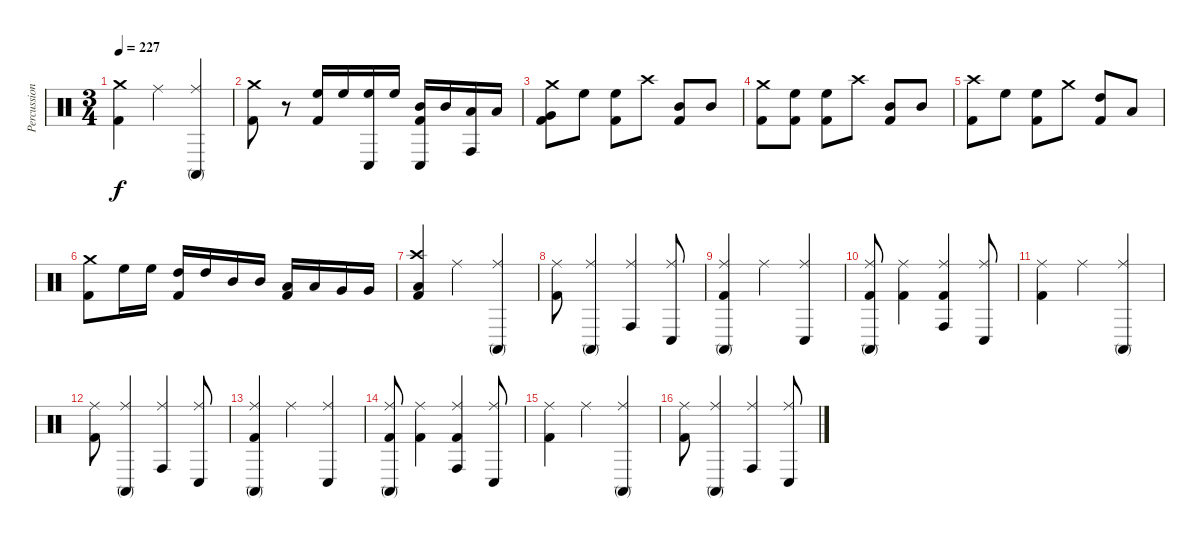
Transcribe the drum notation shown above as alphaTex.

\track ("Percussion" "Percussion") {instrument percussion}
\staff {score}
\articulation defaults
\ts (3 4)
\tempo 227
\clef neutral
\ks c
("Crash medium (hit)" "Kick (hit) 2").4{dy f} "Ride (middle)".4 ("Ride (middle)" "Conga high (mute)").4 |
("Crash medium (hit)" "Kick (hit) 2").8 r.8 ("High Floor Tom (hit)" "Kick (hit) 2").16 "High Floor Tom (hit)".16 ("Conga low (hit)" "High Floor Tom (hit)").16 "High Floor Tom (hit)".16 ("Conga low (hit)" "Mid Tom (hit)" "Kick (hit) 2").16 "Mid Tom (hit)".16 ("Conga high (hit)" "Low Tom (hit)").16 "Low Tom (hit)".16 |
("Crash medium (hit)" "Very Low Tom (hit)" "Kick (hit) 2").8 "High Floor Tom (hit)".8 ("High Floor Tom (hit)" "Kick (hit) 2").8 "Crash high (hit)".8 ("Mid Tom (hit)" "Kick (hit) 2").8 "Mid Tom (hit)".8 |
("Crash medium (hit)" "Kick (hit) 2").8 ("High Floor Tom (hit)" "Kick (hit) 2").8 ("High Floor Tom (hit)" "Kick (hit) 2").8 "Crash high (hit)".8 ("Mid Tom (hit)" "Kick (hit) 2").8 "Mid Tom (hit)".8 |
("Crash high (hit)" "Kick (hit) 2").8 "High Floor Tom (hit)".8 ("High Floor Tom (hit)" "Kick (hit) 2").8 "Crash medium (hit)".8 ("High Tom (hit)" "Kick (hit) 2").8 "Low Tom (hit)".8 |
("Crash medium (hit)" "Kick (hit) 2").8 "High Floor Tom (hit)".16 "High Floor Tom (hit)".16 ("High Tom (hit)" "Kick (hit) 2").16 "High Tom (hit)".16 "Mid Tom (hit)".16 "Mid Tom (hit)".16 ("Low Tom (hit)" "Kick (hit) 2").16 "Low Tom (hit)".16 "Very Low Tom (hit)".16 "Very Low Tom (hit)".16 |
("Crash high (hit)" "Low Floor Tom (hit)" "Kick (hit) 2").4 "Ride (middle)".4 ("Ride (middle)" "Conga high (mute)").4 |
("Ride (middle)" "Kick (hit) 2").8 ("Ride (middle)" "Conga high (mute)").4 ("Ride (middle)" "Conga high (hit)").4 ("Ride (middle)" "Conga low (hit)").8 |
("Ride (middle)" "Conga high (mute)" "Kick (hit) 2").4 "Ride (middle)".4 ("Ride (middle)" "Conga low (hit)").4 |
("Ride (middle)" "Conga high (mute)" "Kick (hit) 2").8 ("Ride (middle)" "Kick (hit) 2").4 ("Ride (middle)" "Conga high (hit)" "Kick (hit) 2").4 ("Ride (middle)" "Conga low (hit)").8 |
("Ride (middle)" "Kick (hit) 2").4 "Ride (middle)".4 ("Ride (middle)" "Conga high (mute)").4 |
("Ride (middle)" "Kick (hit) 2").8 ("Ride (middle)" "Conga high (mute)").4 ("Ride (middle)" "Conga high (hit)").4 ("Ride (middle)" "Conga low (hit)").8 |
("Ride (middle)" "Conga high (mute)" "Kick (hit) 2").4 "Ride (middle)".4 ("Ride (middle)" "Conga low (hit)").4 |
("Ride (middle)" "Conga high (mute)" "Kick (hit) 2").8 ("Ride (middle)" "Kick (hit) 2").4 ("Ride (middle)" "Conga high (hit)" "Kick (hit) 2").4 ("Ride (middle)" "Conga low (hit)").8 |
("Ride (middle)" "Kick (hit) 2").4 "Ride (middle)".4 ("Ride (middle)" "Conga high (mute)").4 |
("Ride (middle)" "Kick (hit) 2").8 ("Ride (middle)" "Conga high (mute)").4 ("Ride (middle)" "Conga high (hit)").4 ("Ride (middle)" "Conga low (hit)").8
